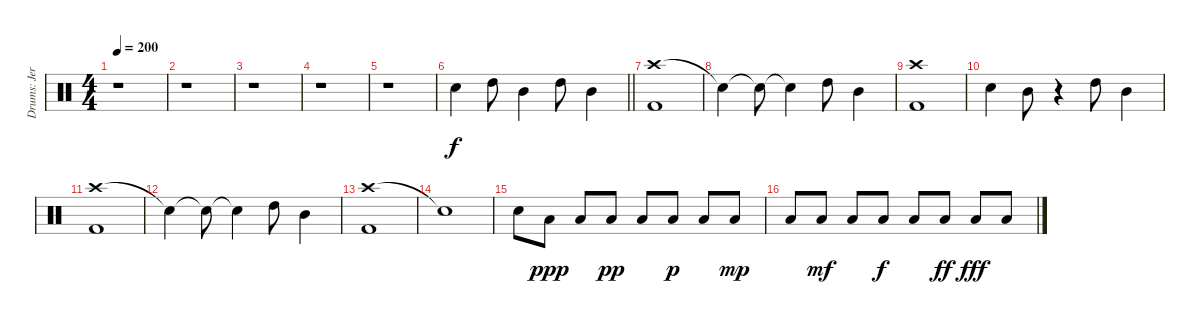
\track ("Drums: Jere Luokkamäki" "Drums: Jer") {instrument percussion}
\staff {score}
\articulation defaults
\ts (4 4)
\tempo 200
\clef neutral
\ks aminor
r.1{dy f} |
r.1 |
r.1 |
r.1 |
r.1 |
\barLineRight lightlight "Electric Snare (hit)".4 "High Tom (hit)".8 "Mid Tom (hit)".4 "High Tom (hit)".8 "Mid Tom (hit)".4
|
("Crash high (hit)" "Kick (hit) 2").1 |
"Snare (hit)"{t}.4 "Snare (hit)"{t}.8 "Snare (hit)"{t}.4 "High Tom (hit)".8 "Mid Tom (hit)".4 |
("Crash high (hit)" "Kick (hit) 2").1 |
"Electric Snare (hit)".4 "Mid Tom (hit)".8 r.4 "High Tom (hit)".8 "Mid Tom (hit)".4 |
("Crash high (hit)" "Kick (hit) 2").1 |
"Snare (hit)"{t}.4 "Snare (hit)"{t}.8 "Snare (hit)"{t}.4 "High Tom (hit)".8 "Mid Tom (hit)".4 |
("Crash high (hit)" "Kick (hit) 2").1 |
"Snare (hit)"{t}.1 |
"Electric Snare (hit)".8 "Low Tom (hit)".8{dy ppp} "Low Tom (hit)".8 "Low Tom (hit)".8{dy pp} "Low Tom (hit)".8 "Low Tom (hit)".8{dy p} "Low Tom (hit)".8 "Low Tom (hit)".8{dy mp} |
"Low Tom (hit)".8 "Low Tom (hit)".8{dy mf} "Low Tom (hit)".8 "Low Tom (hit)".8{dy f} "Low Tom (hit)".8 "Low Tom (hit)".8{dy ff} "Low Tom (hit)".8{dy fff} "Low Tom (hit)".8
